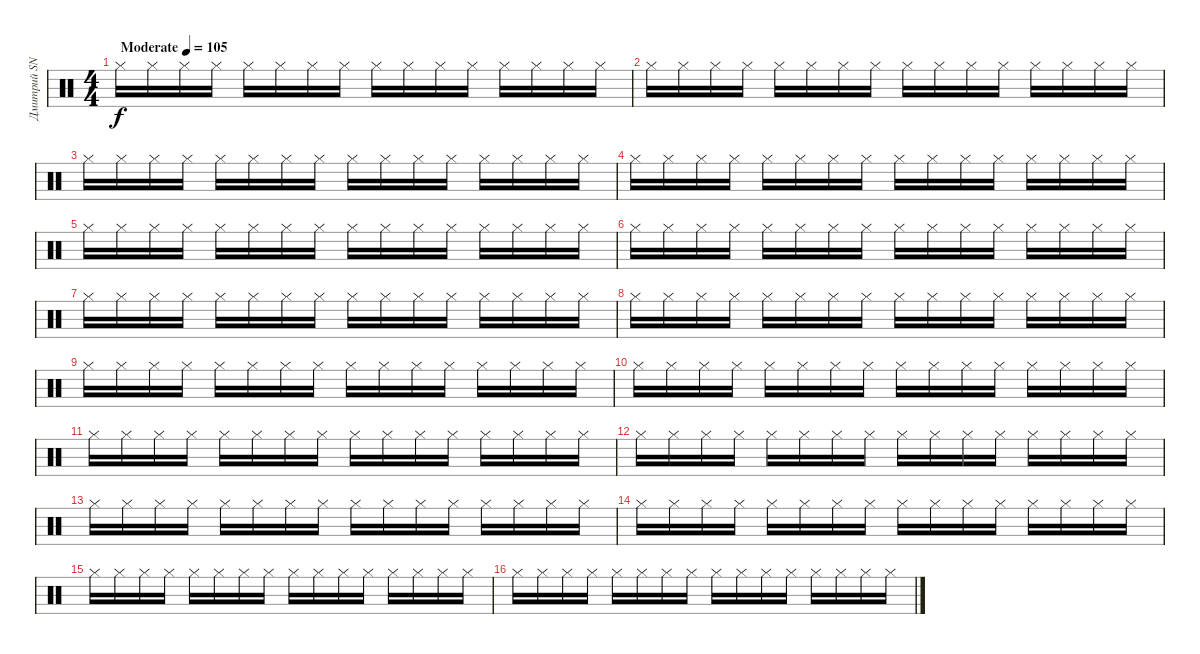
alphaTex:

\track ("Дмитрий SNAKE Хакимов (ударные)" "Дмитрий SN") {instrument percussion}
\staff {score}
\articulation defaults
\ts (4 4)
\tempo (105 "Moderate")
\clef neutral
\ks c "Hi-Hat (closed)".16{dy f} "Hi-Hat (closed)".16 "Hi-Hat (closed)".16 "Hi-Hat (closed)".16 "Hi-Hat (closed)".16 "Hi-Hat (closed)".16 "Hi-Hat (closed)".16 "Hi-Hat (closed)".16 "Hi-Hat (closed)".16 "Hi-Hat (closed)".16 "Hi-Hat (closed)".16 "Hi-Hat (closed)".16 "Hi-Hat (closed)".16 "Hi-Hat (closed)".16 "Hi-Hat (closed)".16 "Hi-Hat (closed)".16
|
"Hi-Hat (closed)".16 "Hi-Hat (closed)".16 "Hi-Hat (closed)".16 "Hi-Hat (closed)".16 "Hi-Hat (closed)".16 "Hi-Hat (closed)".16 "Hi-Hat (closed)".16 "Hi-Hat (closed)".16 "Hi-Hat (closed)".16 "Hi-Hat (closed)".16 "Hi-Hat (closed)".16 "Hi-Hat (closed)".16 "Hi-Hat (closed)".16 "Hi-Hat (closed)".16 "Hi-Hat (closed)".16 "Hi-Hat (closed)".16 |
"Hi-Hat (closed)".16 "Hi-Hat (closed)".16 "Hi-Hat (closed)".16 "Hi-Hat (closed)".16 "Hi-Hat (closed)".16 "Hi-Hat (closed)".16 "Hi-Hat (closed)".16 "Hi-Hat (closed)".16 "Hi-Hat (closed)".16 "Hi-Hat (closed)".16 "Hi-Hat (closed)".16 "Hi-Hat (closed)".16 "Hi-Hat (closed)".16 "Hi-Hat (closed)".16 "Hi-Hat (closed)".16 "Hi-Hat (closed)".16 |
"Hi-Hat (closed)".16 "Hi-Hat (closed)".16 "Hi-Hat (closed)".16 "Hi-Hat (closed)".16 "Hi-Hat (closed)".16 "Hi-Hat (closed)".16 "Hi-Hat (closed)".16 "Hi-Hat (closed)".16 "Hi-Hat (closed)".16 "Hi-Hat (closed)".16 "Hi-Hat (closed)".16 "Hi-Hat (closed)".16 "Hi-Hat (closed)".16 "Hi-Hat (closed)".16 "Hi-Hat (closed)".16 "Hi-Hat (closed)".16 |
"Hi-Hat (closed)".16 "Hi-Hat (closed)".16 "Hi-Hat (closed)".16 "Hi-Hat (closed)".16 "Hi-Hat (closed)".16 "Hi-Hat (closed)".16 "Hi-Hat (closed)".16 "Hi-Hat (closed)".16 "Hi-Hat (closed)".16 "Hi-Hat (closed)".16 "Hi-Hat (closed)".16 "Hi-Hat (closed)".16 "Hi-Hat (closed)".16 "Hi-Hat (closed)".16 "Hi-Hat (closed)".16 "Hi-Hat (closed)".16 |
"Hi-Hat (closed)".16 "Hi-Hat (closed)".16 "Hi-Hat (closed)".16 "Hi-Hat (closed)".16 "Hi-Hat (closed)".16 "Hi-Hat (closed)".16 "Hi-Hat (closed)".16 "Hi-Hat (closed)".16 "Hi-Hat (closed)".16 "Hi-Hat (closed)".16 "Hi-Hat (closed)".16 "Hi-Hat (closed)".16 "Hi-Hat (closed)".16 "Hi-Hat (closed)".16 "Hi-Hat (closed)".16 "Hi-Hat (closed)".16 |
"Hi-Hat (closed)".16 "Hi-Hat (closed)".16 "Hi-Hat (closed)".16 "Hi-Hat (closed)".16 "Hi-Hat (closed)".16 "Hi-Hat (closed)".16 "Hi-Hat (closed)".16 "Hi-Hat (closed)".16 "Hi-Hat (closed)".16 "Hi-Hat (closed)".16 "Hi-Hat (closed)".16 "Hi-Hat (closed)".16 "Hi-Hat (closed)".16 "Hi-Hat (closed)".16 "Hi-Hat (closed)".16 "Hi-Hat (closed)".16 |
"Hi-Hat (closed)".16 "Hi-Hat (closed)".16 "Hi-Hat (closed)".16 "Hi-Hat (closed)".16 "Hi-Hat (closed)".16 "Hi-Hat (closed)".16 "Hi-Hat (closed)".16 "Hi-Hat (closed)".16 "Hi-Hat (closed)".16 "Hi-Hat (closed)".16 "Hi-Hat (closed)".16 "Hi-Hat (closed)".16 "Hi-Hat (closed)".16 "Hi-Hat (closed)".16 "Hi-Hat (closed)".16 "Hi-Hat (closed)".16 |
"Hi-Hat (closed)".16 "Hi-Hat (closed)".16 "Hi-Hat (closed)".16 "Hi-Hat (closed)".16 "Hi-Hat (closed)".16 "Hi-Hat (closed)".16 "Hi-Hat (closed)".16 "Hi-Hat (closed)".16 "Hi-Hat (closed)".16 "Hi-Hat (closed)".16 "Hi-Hat (closed)".16 "Hi-Hat (closed)".16 "Hi-Hat (closed)".16 "Hi-Hat (closed)".16 "Hi-Hat (closed)".16 "Hi-Hat (closed)".16 |
"Hi-Hat (closed)".16 "Hi-Hat (closed)".16 "Hi-Hat (closed)".16 "Hi-Hat (closed)".16 "Hi-Hat (closed)".16 "Hi-Hat (closed)".16 "Hi-Hat (closed)".16 "Hi-Hat (closed)".16 "Hi-Hat (closed)".16 "Hi-Hat (closed)".16 "Hi-Hat (closed)".16 "Hi-Hat (closed)".16 "Hi-Hat (closed)".16 "Hi-Hat (closed)".16 "Hi-Hat (closed)".16 "Hi-Hat (closed)".16 |
"Hi-Hat (closed)".16 "Hi-Hat (closed)".16 "Hi-Hat (closed)".16 "Hi-Hat (closed)".16 "Hi-Hat (closed)".16 "Hi-Hat (closed)".16 "Hi-Hat (closed)".16 "Hi-Hat (closed)".16 "Hi-Hat (closed)".16 "Hi-Hat (closed)".16 "Hi-Hat (closed)".16 "Hi-Hat (closed)".16 "Hi-Hat (closed)".16 "Hi-Hat (closed)".16 "Hi-Hat (closed)".16 "Hi-Hat (closed)".16 |
"Hi-Hat (closed)".16 "Hi-Hat (closed)".16 "Hi-Hat (closed)".16 "Hi-Hat (closed)".16 "Hi-Hat (closed)".16 "Hi-Hat (closed)".16 "Hi-Hat (closed)".16 "Hi-Hat (closed)".16 "Hi-Hat (closed)".16 "Hi-Hat (closed)".16 "Hi-Hat (closed)".16 "Hi-Hat (closed)".16 "Hi-Hat (closed)".16 "Hi-Hat (closed)".16 "Hi-Hat (closed)".16 "Hi-Hat (closed)".16 |
"Hi-Hat (closed)".16 "Hi-Hat (closed)".16 "Hi-Hat (closed)".16 "Hi-Hat (closed)".16 "Hi-Hat (closed)".16 "Hi-Hat (closed)".16 "Hi-Hat (closed)".16 "Hi-Hat (closed)".16 "Hi-Hat (closed)".16 "Hi-Hat (closed)".16 "Hi-Hat (closed)".16 "Hi-Hat (closed)".16 "Hi-Hat (closed)".16 "Hi-Hat (closed)".16 "Hi-Hat (closed)".16 "Hi-Hat (closed)".16 |
"Hi-Hat (closed)".16 "Hi-Hat (closed)".16 "Hi-Hat (closed)".16 "Hi-Hat (closed)".16 "Hi-Hat (closed)".16 "Hi-Hat (closed)".16 "Hi-Hat (closed)".16 "Hi-Hat (closed)".16 "Hi-Hat (closed)".16 "Hi-Hat (closed)".16 "Hi-Hat (closed)".16 "Hi-Hat (closed)".16 "Hi-Hat (closed)".16 "Hi-Hat (closed)".16 "Hi-Hat (closed)".16 "Hi-Hat (closed)".16 |
"Hi-Hat (closed)".16 "Hi-Hat (closed)".16 "Hi-Hat (closed)".16 "Hi-Hat (closed)".16 "Hi-Hat (closed)".16 "Hi-Hat (closed)".16 "Hi-Hat (closed)".16 "Hi-Hat (closed)".16 "Hi-Hat (closed)".16 "Hi-Hat (closed)".16 "Hi-Hat (closed)".16 "Hi-Hat (closed)".16 "Hi-Hat (closed)".16 "Hi-Hat (closed)".16 "Hi-Hat (closed)".16 "Hi-Hat (closed)".16 |
"Hi-Hat (closed)".16 "Hi-Hat (closed)".16 "Hi-Hat (closed)".16 "Hi-Hat (closed)".16 "Hi-Hat (closed)".16 "Hi-Hat (closed)".16 "Hi-Hat (closed)".16 "Hi-Hat (closed)".16 "Hi-Hat (closed)".16 "Hi-Hat (closed)".16 "Hi-Hat (closed)".16 "Hi-Hat (closed)".16 "Hi-Hat (closed)".16 "Hi-Hat (closed)".16 "Hi-Hat (closed)".16 "Hi-Hat (closed)".16
